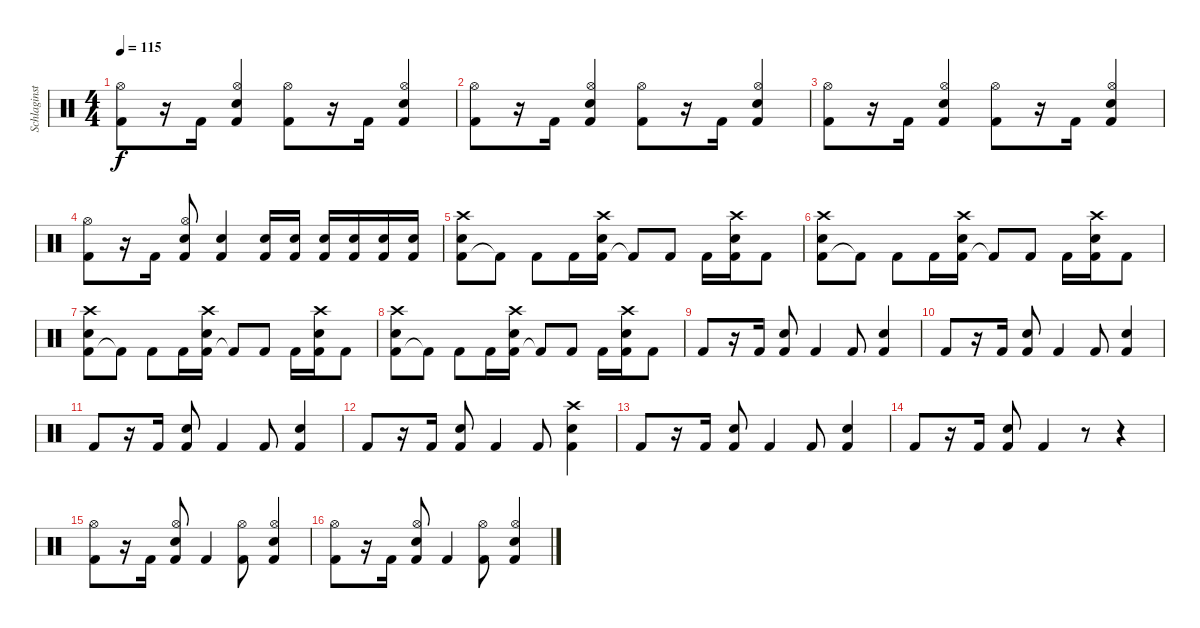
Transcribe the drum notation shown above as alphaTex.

\track ("Schlaginstrumente - Auswahl" "Schlaginst") {instrument percussion}
\staff {score}
\articulation defaults
\ts (4 4)
\tempo 115
\clef neutral
\ks c
("Kick (hit) 2" "Hi-Hat (open)").8{dy f} r.16 "Kick (hit) 2".16 ("Kick (hit) 2" "Snare (hit) 2" "Hi-Hat (open)").4 ("Kick (hit) 2" "Hi-Hat (open)").8 r.16 "Kick (hit) 2".16 ("Kick (hit) 2" "Snare (hit) 2" "Hi-Hat (open)").4 |
("Kick (hit) 2" "Hi-Hat (open)").8 r.16 "Kick (hit) 2".16 ("Kick (hit) 2" "Snare (hit) 2" "Hi-Hat (open)").4 ("Kick (hit) 2" "Hi-Hat (open)").8 r.16 "Kick (hit) 2".16 ("Kick (hit) 2" "Snare (hit) 2" "Hi-Hat (open)").4 |
("Kick (hit) 2" "Hi-Hat (open)").8 r.16 "Kick (hit) 2".16 ("Kick (hit) 2" "Snare (hit) 2" "Hi-Hat (open)").4 ("Kick (hit) 2" "Hi-Hat (open)").8 r.16 "Kick (hit) 2".16 ("Kick (hit) 2" "Snare (hit) 2" "Hi-Hat (open)").4 |
("Kick (hit) 2" "Hi-Hat (open)").8 r.16 "Kick (hit) 2".16 ("Kick (hit) 2" "Snare (hit) 2" "Hi-Hat (open)").8 ("Kick (hit) 2" "Snare (hit) 2").4 ("Kick (hit) 2" "Snare (hit) 2").16 ("Kick (hit) 2" "Snare (hit) 2").16 ("Kick (hit) 2" "Snare (hit) 2").16 ("Kick (hit) 2" "Snare (hit) 2").16 ("Kick (hit) 2" "Snare (hit) 2").16 ("Kick (hit) 2" "Snare (hit) 2").16 |
("Kick (hit) 2" "Snare (hit) 2" "Crash high (hit)").8 "Kick (hit) 2"{t}.8 "Kick (hit) 2".8 "Kick (hit) 2".16 ("Kick (hit) 2" "Snare (hit) 2" "Crash high (hit)").16 "Kick (hit) 2"{t}.8 "Kick (hit) 2".8 "Kick (hit) 2".16 ("Kick (hit) 2" "Snare (hit) 2" "Crash high (hit)").16 "Kick (hit) 2".8 |
("Kick (hit) 2" "Snare (hit) 2" "Crash high (hit)").8 "Kick (hit) 2"{t}.8 "Kick (hit) 2".8 "Kick (hit) 2".16 ("Kick (hit) 2" "Snare (hit) 2" "Crash high (hit)").16 "Kick (hit) 2"{t}.8 "Kick (hit) 2".8 "Kick (hit) 2".16 ("Kick (hit) 2" "Snare (hit) 2" "Crash high (hit)").16 "Kick (hit) 2".8 |
("Kick (hit) 2" "Snare (hit) 2" "Crash high (hit)").8 "Kick (hit) 2"{t}.8 "Kick (hit) 2".8 "Kick (hit) 2".16 ("Kick (hit) 2" "Snare (hit) 2" "Crash high (hit)").16 "Kick (hit) 2"{t}.8 "Kick (hit) 2".8 "Kick (hit) 2".16 ("Kick (hit) 2" "Snare (hit) 2" "Crash high (hit)").16 "Kick (hit) 2".8 |
("Kick (hit) 2" "Snare (hit) 2" "Crash high (hit)").8 "Kick (hit) 2"{t}.8 "Kick (hit) 2".8 "Kick (hit) 2".16 ("Kick (hit) 2" "Snare (hit) 2" "Crash high (hit)").16 "Kick (hit) 2"{t}.8 "Kick (hit) 2".8 "Kick (hit) 2".16 ("Kick (hit) 2" "Snare (hit) 2" "Crash high (hit)").16 "Kick (hit) 2".8 |
"Kick (hit) 2".8 r.16 "Kick (hit) 2".16 ("Kick (hit) 2" "Snare (hit) 2").8 "Kick (hit) 2".4 "Kick (hit) 2".8 ("Kick (hit) 2" "Snare (hit) 2").4 |
"Kick (hit) 2".8 r.16 "Kick (hit) 2".16 ("Kick (hit) 2" "Snare (hit) 2").8 "Kick (hit) 2".4 "Kick (hit) 2".8 ("Kick (hit) 2" "Snare (hit) 2").4 |
"Kick (hit) 2".8 r.16 "Kick (hit) 2".16 ("Kick (hit) 2" "Snare (hit) 2").8 "Kick (hit) 2".4 "Kick (hit) 2".8 ("Kick (hit) 2" "Snare (hit) 2").4 |
"Kick (hit) 2".8 r.16 "Kick (hit) 2".16 ("Kick (hit) 2" "Snare (hit) 2").8 "Kick (hit) 2".4 "Kick (hit) 2".8 ("Kick (hit) 2" "Snare (hit) 2" "Crash high (hit)").4 |
"Kick (hit) 2".8 r.16 "Kick (hit) 2".16 ("Kick (hit) 2" "Snare (hit) 2").8 "Kick (hit) 2".4 "Kick (hit) 2".8 ("Kick (hit) 2" "Snare (hit) 2").4 |
"Kick (hit) 2".8 r.16 "Kick (hit) 2".16 ("Kick (hit) 2" "Snare (hit) 2").8 "Kick (hit) 2".4 r.8 r.4 |
("Kick (hit) 2" "Hi-Hat (open)").8 r.16 "Kick (hit) 2".16 ("Kick (hit) 2" "Snare (hit) 2" "Hi-Hat (open)").8 "Kick (hit) 2".4 ("Kick (hit) 2" "Hi-Hat (open)").8 ("Kick (hit) 2" "Snare (hit) 2" "Hi-Hat (open)").4 |
("Kick (hit) 2" "Hi-Hat (open)").8 r.16 "Kick (hit) 2".16 ("Kick (hit) 2" "Snare (hit) 2" "Hi-Hat (open)").8 "Kick (hit) 2".4 ("Kick (hit) 2" "Hi-Hat (open)").8 ("Kick (hit) 2" "Snare (hit) 2" "Hi-Hat (open)").4
